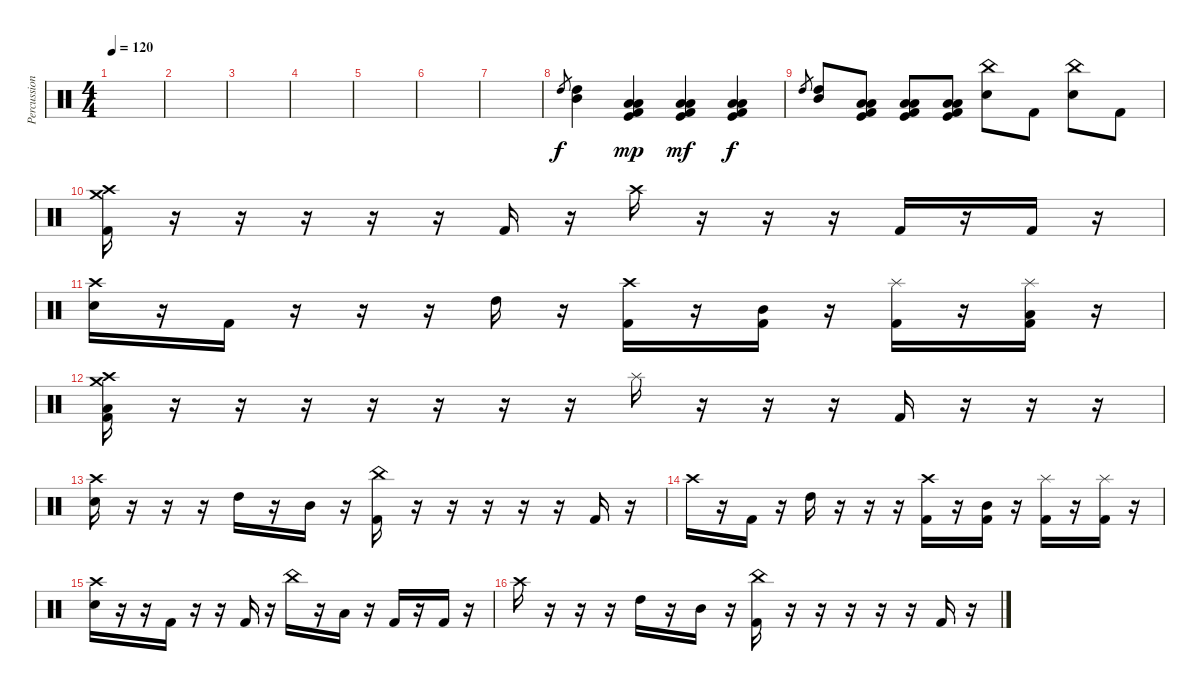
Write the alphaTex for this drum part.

\track ("Percussion" "Percussion") {instrument percussion}
\staff {score}
\articulation defaults
\ts (4 4)
\tempo 120
\clef neutral
\ks c
|
|
|
|
|
|
|
"High Tom (hit)".8{gr} ("High Tom (hit)" "Mid Tom (hit)").4 ("Kick (hit)" "Low Tom (hit)" "Low Floor Tom (hit)" "Kick (hit) 2").4{dy mp} ("Kick (hit)" "Low Tom (hit)" "Low Floor Tom (hit)" "Kick (hit) 2").4{dy mf} ("Kick (hit)" "Low Tom (hit)" "Low Floor Tom (hit)" "Kick (hit) 2").4{dy f} |
"High Tom (hit)".8{gr} ("High Tom (hit)" "Mid Tom (hit)").8 ("Kick (hit)" "Low Tom (hit)" "Low Floor Tom (hit)" "Kick (hit) 2").8 ("Kick (hit)" "Low Tom (hit)" "Low Floor Tom (hit)" "Kick (hit) 2").8 ("Kick (hit)" "Low Tom (hit)" "Low Floor Tom (hit)" "Kick (hit) 2").8 ("China (hit)" "Electric Snare (hit)").8 "Kick (hit) 2".8 ("China (hit)" "Electric Snare (hit)").8 "Kick (hit) 2".8 |
("Crash high (hit)" "Crash medium (hit)" "Kick (hit) 2").16{volume 13} r.16 r.16 r.16 r.16 r.16 "Kick (hit) 2".16 r.16 "Crash high (hit)".16 r.16 r.16 r.16 "Kick (hit) 2".16 r.16 "Kick (hit) 2".16 r.16 |
("Crash high (hit)" "Electric Snare (hit)").16 r.16 "Kick (hit) 2".16 r.16 r.16 r.16 "High Tom (hit)".16 r.16 ("Crash high (hit)" "Kick (hit) 2").16 r.16 ("Mid Tom (hit)" "Kick (hit) 2").16 r.16 ("Splash (hit)" "Kick (hit) 2").16 r.16 ("Splash (hit)" "Low Tom (hit)" "Kick (hit) 2").16 r.16 |
("Crash high (hit)" "Crash medium (hit)" "Low Floor Tom (hit)" "Kick (hit) 2").16 r.16 r.16 r.16 r.16 r.16 r.16 r.16 "Splash (hit)".16 r.16 r.16 r.16 "Kick (hit) 2".16 r.16 r.16 r.16 |
("Crash high (hit)" "Electric Snare (hit)").16 r.16 r.16 r.16 "High Tom (hit)".16 r.16 "Mid Tom (hit)".16 r.16 ("China (hit)" "Kick (hit) 2").16 r.16 r.16 r.16 r.16 r.16 "Kick (hit) 2".16 r.16 |
"Crash high (hit)".16 r.16 "Kick (hit) 2".16 r.16 "High Tom (hit)".16 r.16 r.16 r.16 ("Crash high (hit)" "Kick (hit) 2").16 r.16 ("Mid Tom (hit)" "Kick (hit) 2").16 r.16 ("Splash (hit)" "Kick (hit) 2").16 r.16 ("Splash (hit)" "Kick (hit) 2").16 r.16 |
("Crash high (hit)" "Electric Snare (hit)").16 r.16 r.16 "Kick (hit) 2".16 r.16 r.16 "Kick (hit) 2".16 r.16 "China (hit)".16 r.16 "Low Tom (hit)".16 r.16 "Kick (hit) 2".16 r.16 "Kick (hit) 2".16 r.16 |
"Crash high (hit)".16 r.16 r.16 r.16 "High Tom (hit)".16 r.16 "Mid Tom (hit)".16 r.16 ("China (hit)" "Kick (hit) 2").16 r.16 r.16 r.16 r.16 r.16 "Kick (hit) 2".16 r.16
